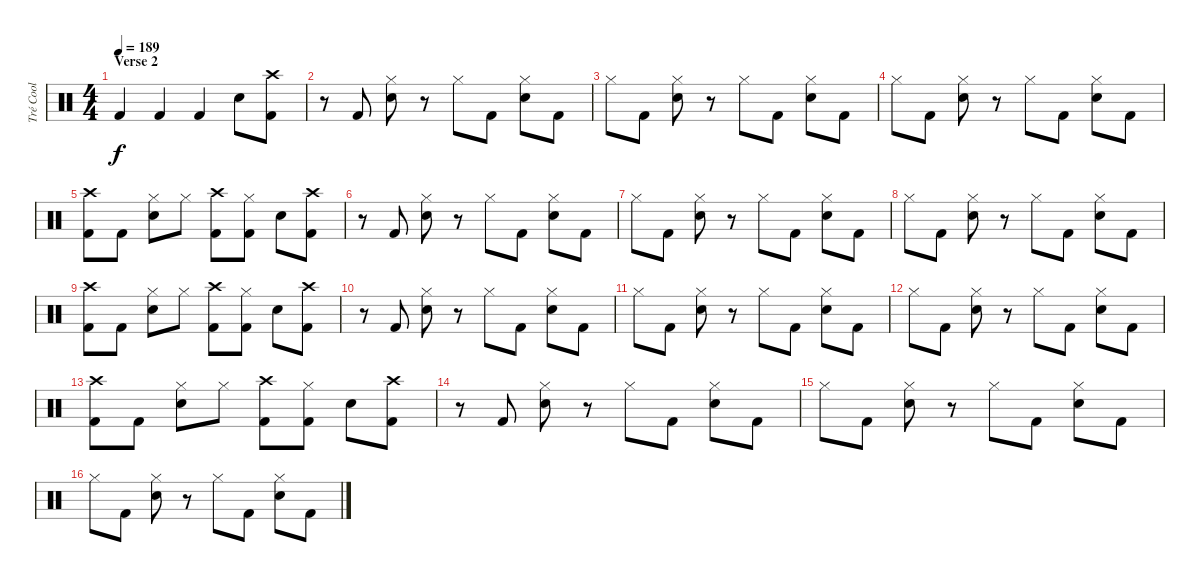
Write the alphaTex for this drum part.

\track ("Tré Cool" "Tré Cool") {instrument percussion}
\staff {score}
\articulation defaults
\ts (4 4)
\section ("" "Verse 2")
\tempo 189
\clef neutral
\ks c "Kick (hit) 2".4{dy f} "Kick (hit) 2".4 "Kick (hit) 2".4 "Snare (hit) 2".8
("Crash high (hit)" "Kick (hit) 2").8 |
r.8 "Kick (hit) 2".8 ("Hi-Hat (closed)" "Snare (hit) 2").8 r.8 "Hi-Hat (closed)".8 "Kick (hit) 2".8 ("Hi-Hat (closed)" "Snare (hit) 2").8 "Kick (hit) 2".8 |
"Hi-Hat (closed)".8 "Kick (hit) 2".8 ("Hi-Hat (closed)" "Snare (hit) 2").8 r.8 "Hi-Hat (closed)".8 "Kick (hit) 2".8 ("Hi-Hat (closed)" "Snare (hit) 2").8 "Kick (hit) 2".8 |
"Hi-Hat (closed)".8 "Kick (hit) 2".8 ("Hi-Hat (closed)" "Snare (hit) 2").8 r.8 "Hi-Hat (closed)".8 "Kick (hit) 2".8 ("Hi-Hat (closed)" "Snare (hit) 2").8 "Kick (hit) 2".8 |
("Crash high (hit)" "Kick (hit) 2").8 "Kick (hit) 2".8 ("Hi-Hat (closed)" "Snare (hit) 2").8 "Hi-Hat (closed)".8 ("Crash high (hit)" "Kick (hit) 2").8 ("Hi-Hat (closed)" "Kick (hit) 2").8 "Snare (hit) 2".8 ("Crash high (hit)" "Kick (hit) 2").8 |
r.8 "Kick (hit) 2".8 ("Hi-Hat (closed)" "Snare (hit) 2").8 r.8 "Hi-Hat (closed)".8 "Kick (hit) 2".8 ("Hi-Hat (closed)" "Snare (hit) 2").8 "Kick (hit) 2".8 |
"Hi-Hat (closed)".8 "Kick (hit) 2".8 ("Hi-Hat (closed)" "Snare (hit) 2").8 r.8 "Hi-Hat (closed)".8 "Kick (hit) 2".8 ("Hi-Hat (closed)" "Snare (hit) 2").8 "Kick (hit) 2".8 |
"Hi-Hat (closed)".8 "Kick (hit) 2".8 ("Hi-Hat (closed)" "Snare (hit) 2").8 r.8 "Hi-Hat (closed)".8 "Kick (hit) 2".8 ("Hi-Hat (closed)" "Snare (hit) 2").8 "Kick (hit) 2".8 |
("Crash high (hit)" "Kick (hit) 2").8 "Kick (hit) 2".8 ("Hi-Hat (closed)" "Snare (hit) 2").8 "Hi-Hat (closed)".8 ("Crash high (hit)" "Kick (hit) 2").8 ("Hi-Hat (closed)" "Kick (hit) 2").8 "Snare (hit) 2".8 ("Crash high (hit)" "Kick (hit) 2").8 |
r.8 "Kick (hit) 2".8 ("Hi-Hat (closed)" "Snare (hit) 2").8 r.8 "Hi-Hat (closed)".8 "Kick (hit) 2".8 ("Hi-Hat (closed)" "Snare (hit) 2").8 "Kick (hit) 2".8 |
"Hi-Hat (closed)".8 "Kick (hit) 2".8 ("Hi-Hat (closed)" "Snare (hit) 2").8 r.8 "Hi-Hat (closed)".8 "Kick (hit) 2".8 ("Hi-Hat (closed)" "Snare (hit) 2").8 "Kick (hit) 2".8 |
"Hi-Hat (closed)".8 "Kick (hit) 2".8 ("Hi-Hat (closed)" "Snare (hit) 2").8 r.8 "Hi-Hat (closed)".8 "Kick (hit) 2".8 ("Hi-Hat (closed)" "Snare (hit) 2").8 "Kick (hit) 2".8 |
("Crash high (hit)" "Kick (hit) 2").8 "Kick (hit) 2".8 ("Hi-Hat (closed)" "Snare (hit) 2").8 "Hi-Hat (closed)".8 ("Crash high (hit)" "Kick (hit) 2").8 ("Hi-Hat (closed)" "Kick (hit) 2").8 "Snare (hit) 2".8 ("Crash high (hit)" "Kick (hit) 2").8 |
r.8 "Kick (hit) 2".8 ("Hi-Hat (closed)" "Snare (hit) 2").8 r.8 "Hi-Hat (closed)".8 "Kick (hit) 2".8 ("Hi-Hat (closed)" "Snare (hit) 2").8 "Kick (hit) 2".8 |
"Hi-Hat (closed)".8 "Kick (hit) 2".8 ("Hi-Hat (closed)" "Snare (hit) 2").8 r.8 "Hi-Hat (closed)".8 "Kick (hit) 2".8 ("Hi-Hat (closed)" "Snare (hit) 2").8 "Kick (hit) 2".8 |
"Hi-Hat (closed)".8 "Kick (hit) 2".8 ("Hi-Hat (closed)" "Snare (hit) 2").8 r.8 "Hi-Hat (closed)".8 "Kick (hit) 2".8 ("Hi-Hat (closed)" "Snare (hit) 2").8 "Kick (hit) 2".8
